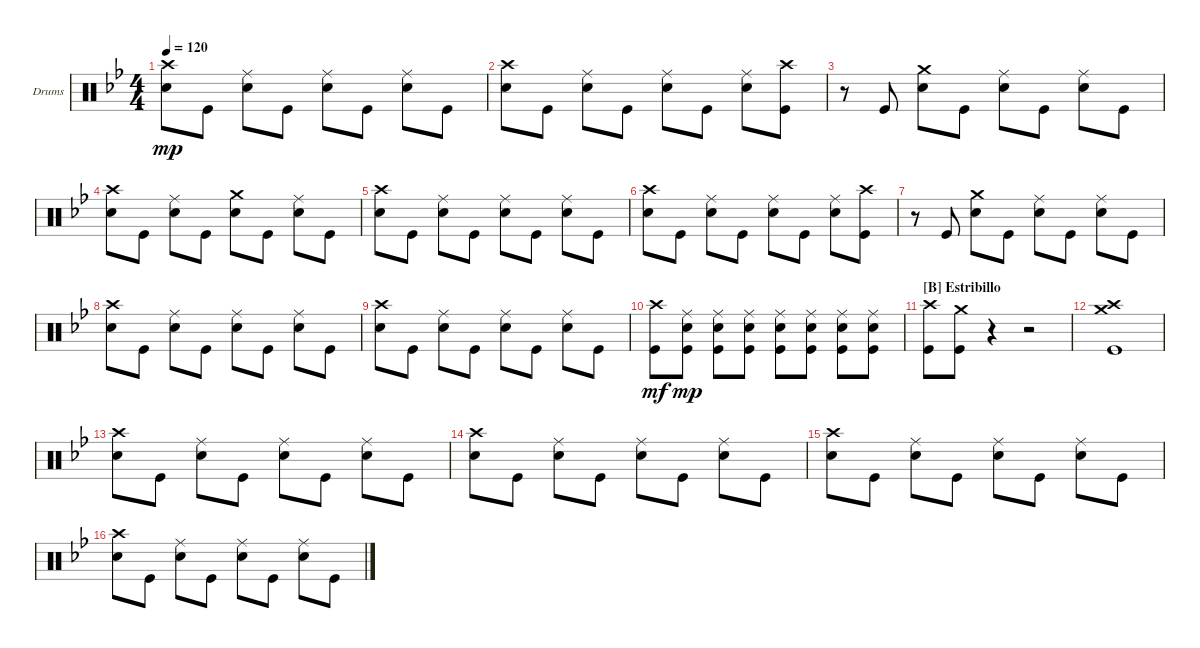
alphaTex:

\bracketExtendMode groupsimilarinstruments
\firstSystemTrackNameOrientation horizontal
\otherSystemsTrackNameOrientation horizontal
\track ("Drums Ghoul" "Drums") {instrument percussion}
\staff {score}
\articulation defaults
\ts (4 4)
\tempo 120
\clef neutral
\ks bb
("Snare (hit) 2" "Crash high (hit)").8{dy mp} "Kick (hit)".8 ("Snare (hit) 2" "Ride (middle)").8 "Kick (hit)".8 ("Snare (hit) 2" "Ride (middle)").8 "Kick (hit)".8 ("Snare (hit) 2" "Ride (middle)").8 "Kick (hit)".8 |
("Snare (hit) 2" "Crash high (hit)").8 "Kick (hit)".8 ("Snare (hit) 2" "Ride (middle)").8 "Kick (hit)".8 ("Snare (hit) 2" "Ride (middle)").8 "Kick (hit)".8 ("Snare (hit) 2" "Ride (middle)").8 ("Kick (hit)" "Crash high (hit)").8 |
r.8 "Kick (hit)".8 ("Snare (hit) 2" "Crash medium (hit)").8 "Kick (hit)".8 ("Snare (hit) 2" "Ride (middle)").8 "Kick (hit)".8 ("Snare (hit) 2" "Ride (middle)").8 "Kick (hit)".8 |
("Snare (hit) 2" "Crash high (hit)").8 "Kick (hit)".8 ("Snare (hit) 2" "Ride (middle)").8 "Kick (hit)".8 ("Snare (hit) 2" "Crash medium (hit)").8 "Kick (hit)".8 ("Snare (hit) 2" "Ride (middle)").8 "Kick (hit)".8 |
("Snare (hit) 2" "Crash high (hit)").8 "Kick (hit)".8 ("Snare (hit) 2" "Ride (middle)").8 "Kick (hit)".8 ("Snare (hit) 2" "Ride (middle)").8 "Kick (hit)".8 ("Snare (hit) 2" "Ride (middle)").8 "Kick (hit)".8 |
("Snare (hit) 2" "Crash high (hit)").8 "Kick (hit)".8 ("Snare (hit) 2" "Ride (middle)").8 "Kick (hit)".8 ("Snare (hit) 2" "Ride (middle)").8 "Kick (hit)".8 ("Snare (hit) 2" "Ride (middle)").8 ("Kick (hit)" "Crash high (hit)").8 |
r.8 "Kick (hit)".8 ("Snare (hit) 2" "Crash medium (hit)").8 "Kick (hit)".8 ("Snare (hit) 2" "Ride (middle)").8 "Kick (hit)".8 ("Snare (hit) 2" "Ride (middle)").8 "Kick (hit)".8 |
("Snare (hit) 2" "Crash high (hit)").8 "Kick (hit)".8 ("Snare (hit) 2" "Ride (middle)").8 "Kick (hit)".8 ("Snare (hit) 2" "Ride (middle)").8 "Kick (hit)".8 ("Snare (hit) 2" "Ride (middle)").8 "Kick (hit)".8 |
("Snare (hit) 2" "Crash high (hit)").8 "Kick (hit)".8 ("Snare (hit) 2" "Ride (middle)").8 "Kick (hit)".8 ("Snare (hit) 2" "Ride (middle)").8 "Kick (hit)".8 ("Snare (hit) 2" "Ride (middle)").8 "Kick (hit)".8 |
("Kick (hit)" "Crash high (hit)").8{dy mf} ("Kick (hit)" "Snare (hit) 2" "Ride (middle)").8{dy mp} ("Kick (hit)" "Snare (hit) 2" "Ride (middle)").8 ("Kick (hit)" "Snare (hit) 2" "Ride (middle)").8 ("Kick (hit)" "Snare (hit) 2" "Ride (middle)").8 ("Kick (hit)" "Snare (hit) 2" "Ride (middle)").8 ("Kick (hit)" "Snare (hit) 2" "Ride (middle)").8 ("Kick (hit)" "Snare (hit) 2" "Ride (middle)").8 |
\section ("B" "Estribillo")
("Kick (hit)" "Crash high (hit)").8 ("Kick (hit)" "Crash medium (hit)").8 r.4 r.2 |
("Kick (hit)" "Crash high (hit)" "Crash medium (hit)").1 |
("Snare (hit) 2" "Crash high (hit)").8 "Kick (hit)".8 ("Snare (hit) 2" "Ride (middle)").8 "Kick (hit)".8 ("Snare (hit) 2" "Ride (middle)").8 "Kick (hit)".8 ("Snare (hit) 2" "Ride (middle)").8 "Kick (hit)".8 |
("Snare (hit) 2" "Crash high (hit)").8 "Kick (hit)".8 ("Snare (hit) 2" "Ride (middle)").8 "Kick (hit)".8 ("Snare (hit) 2" "Ride (middle)").8 "Kick (hit)".8 ("Snare (hit) 2" "Ride (middle)").8 "Kick (hit)".8 |
("Snare (hit) 2" "Crash high (hit)").8 "Kick (hit)".8 ("Snare (hit) 2" "Ride (middle)").8 "Kick (hit)".8 ("Snare (hit) 2" "Ride (middle)").8 "Kick (hit)".8 ("Snare (hit) 2" "Ride (middle)").8 "Kick (hit)".8 |
("Snare (hit) 2" "Crash high (hit)").8 "Kick (hit)".8 ("Snare (hit) 2" "Ride (middle)").8 "Kick (hit)".8 ("Snare (hit) 2" "Ride (middle)").8 "Kick (hit)".8 ("Snare (hit) 2" "Ride (middle)").8 "Kick (hit)".8
